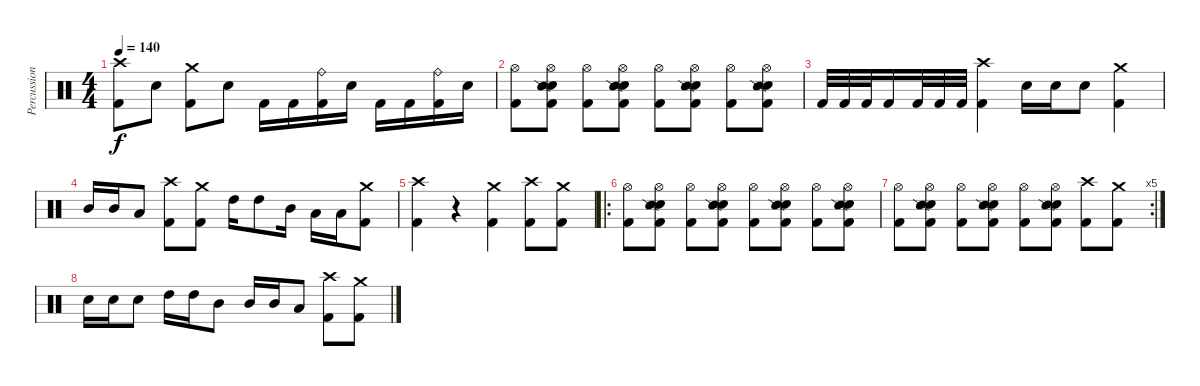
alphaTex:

\track ("Percussion" "Percussion") {instrument percussion}
\staff {score}
\articulation defaults
\ts (4 4)
\tempo 140
\clef neutral
\ks c
("Crash high (hit)" "Kick (hit) 2").8{dy f} "Electric Snare (hit)".8 ("Crash medium (hit)" "Kick (hit) 2").8 "Electric Snare (hit)".8 "Kick (hit) 2".16 "Kick (hit) 2".16 ("Ride (bell)" "Kick (hit) 2").16 "Electric Snare (hit)".16 "Kick (hit) 2".16 "Kick (hit) 2".16 ("Ride (bell)" "Kick (hit) 2").16 "Electric Snare (hit)".16 |
("Hi-Hat (open)" "Kick (hit) 2").8 ("Hi-Hat (open)" "Electric Snare (hit)" "Snare (side stick) 2" "Kick (hit) 2").8 ("Hi-Hat (open)" "Kick (hit) 2").8 ("Hi-Hat (open)" "Electric Snare (hit)" "Snare (side stick) 2" "Kick (hit) 2").8 ("Hi-Hat (open)" "Kick (hit) 2").8 ("Hi-Hat (open)" "Electric Snare (hit)" "Snare (side stick) 2" "Kick (hit) 2").8 ("Hi-Hat (open)" "Kick (hit) 2").8 ("Hi-Hat (open)" "Electric Snare (hit)" "Snare (side stick) 2" "Kick (hit) 2").8 |
"Kick (hit) 2".32 "Kick (hit) 2".32 "Kick (hit) 2".32 "Kick (hit) 2".16 "Kick (hit) 2".32 "Kick (hit) 2".32 "Kick (hit) 2".32 ("Crash high (hit)" "Kick (hit) 2").4 "Electric Snare (hit)".16 "Electric Snare (hit)".16 "Electric Snare (hit)".8 ("Crash medium (hit)" "Kick (hit) 2").4 |
"Mid Tom (hit)".16 "Mid Tom (hit)".16 "Low Floor Tom (hit)".8 ("Crash high (hit)" "Kick (hit) 2").8 ("Crash medium (hit)" "Kick (hit) 2").8 "High Tom (hit)".16 "High Tom (hit)".8 "Mid Tom (hit)".16 "Low Tom (hit)".16 "Low Tom (hit)".16 ("Crash medium (hit)" "Kick (hit) 2").8 |
("Crash high (hit)" "Kick (hit) 2").4 r.4 ("Crash medium (hit)" "Kick (hit) 2").4 ("Crash high (hit)" "Kick (hit) 2").8 ("Crash medium (hit)" "Kick (hit) 2").8 |
\ro
("Hi-Hat (open)" "Kick (hit) 2").8 ("Hi-Hat (open)" "Electric Snare (hit)" "Snare (side stick) 2" "Kick (hit) 2").8 ("Hi-Hat (open)" "Kick (hit) 2").8 ("Hi-Hat (open)" "Electric Snare (hit)" "Snare (side stick) 2" "Kick (hit) 2").8 ("Hi-Hat (open)" "Kick (hit) 2").8 ("Hi-Hat (open)" "Electric Snare (hit)" "Snare (side stick) 2" "Kick (hit) 2").8 ("Hi-Hat (open)" "Kick (hit) 2").8 ("Hi-Hat (open)" "Electric Snare (hit)" "Snare (side stick) 2" "Kick (hit) 2").8 |
\rc 5
("Hi-Hat (open)" "Kick (hit) 2").8 ("Hi-Hat (open)" "Electric Snare (hit)" "Snare (side stick) 2" "Kick (hit) 2").8 ("Hi-Hat (open)" "Kick (hit) 2").8 ("Hi-Hat (open)" "Electric Snare (hit)" "Snare (side stick) 2" "Kick (hit) 2").8 ("Hi-Hat (open)" "Kick (hit) 2").8 ("Hi-Hat (open)" "Electric Snare (hit)" "Snare (side stick) 2" "Kick (hit) 2").8 ("Crash high (hit)" "Kick (hit) 2").8 ("Crash medium (hit)" "Kick (hit) 2").8 |
"Electric Snare (hit)".16 "Electric Snare (hit)".16 "Electric Snare (hit)".8 "High Tom (hit)".16 "High Tom (hit)".16 "Mid Tom (hit)".8 "Mid Tom (hit)".16 "Mid Tom (hit)".16 "Low Tom (hit)".8 ("Crash high (hit)" "Kick (hit) 2").8 ("Crash medium (hit)" "Kick (hit) 2").8
